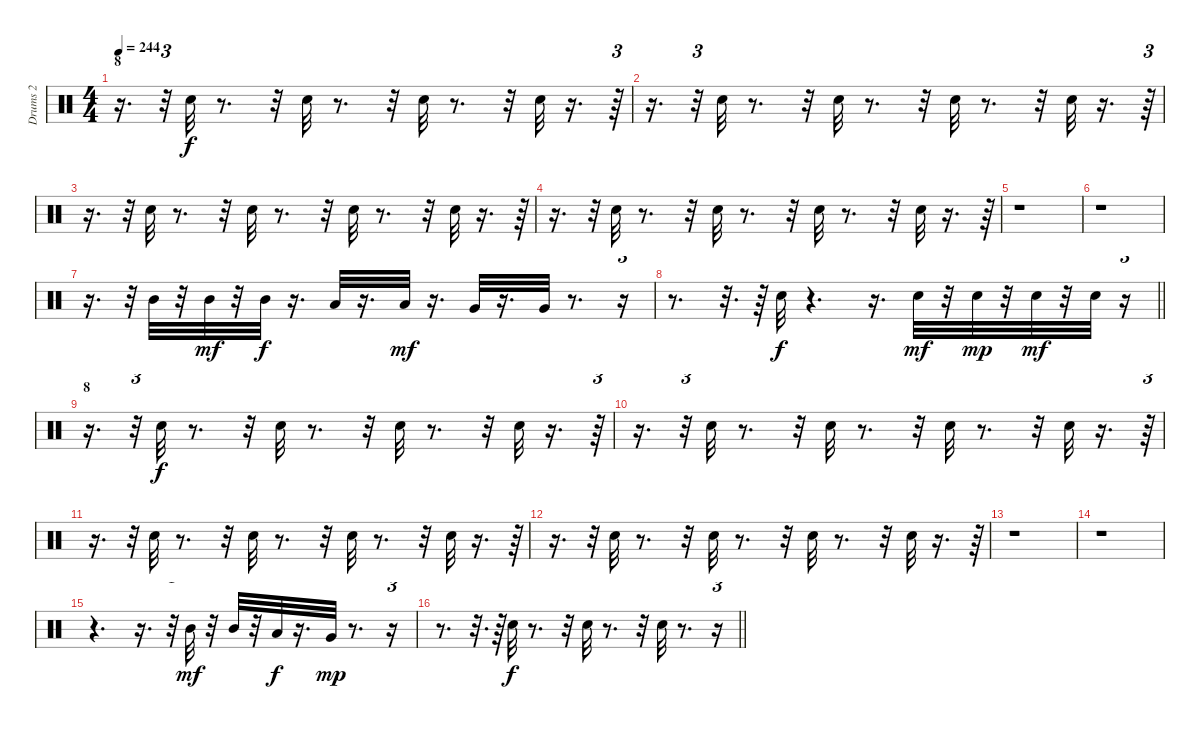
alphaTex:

\track ("Drums 2" "Drums 2") {instrument percussion}
\staff {score}
\articulation defaults
\ts (4 4)
\section ("" "8")
\tempo 244
\clef neutral
\ks c
r.16{d dy mf} r.32{tu (3 2)} "Electric Snare (hit)".32{dy f} r.8{d} r.32 "Electric Snare (hit)".32 r.8{d} r.32 "Electric Snare (hit)".32 r.8{d} r.32 "Electric Snare (hit)".32 r.16{d} r.64{tu (3 2)} |
r.16{d} r.32{tu (3 2)} "Electric Snare (hit)".32 r.8{d} r.32 "Electric Snare (hit)".32 r.8{d} r.32 "Electric Snare (hit)".32 r.8{d} r.32 "Electric Snare (hit)".32 r.16{d} r.64{tu (3 2)} |
r.16{d} r.32{tu (3 2)} "Electric Snare (hit)".32 r.8{d} r.32 "Electric Snare (hit)".32 r.8{d} r.32 "Electric Snare (hit)".32 r.8{d} r.32 "Electric Snare (hit)".32 r.16{d} r.64{tu (3 2)} |
r.16{d} r.32{tu (3 2)} "Electric Snare (hit)".32 r.8{d} r.32 "Electric Snare (hit)".32 r.8{d} r.32 "Electric Snare (hit)".32 r.8{d} r.32 "Electric Snare (hit)".32 r.16{d} r.64{tu (3 2)} |
r.1 |
r.1 |
r.16{d} r.32{tu (3 2)} "Mid Tom (hit)".32 r.32 "Mid Tom (hit)".32{dy mf} r.32 "Mid Tom (hit)".32{dy f} r.16{d} "Low Tom (hit)".32 r.16{d} "Low Tom (hit)".32{dy mf} r.16{d} "Very Low Tom (hit)".32 r.16{d} "Very Low Tom (hit)".32 r.8{d} r.16{tu (3 2)} |
\barLineRight lightlight
r.8{d} r.32{d} r.64 "Electric Snare (hit)".32{dy f} r.4{d} r.16{d} "Electric Snare (hit)".32{dy mf} r.32 "Electric Snare (hit)".32{dy mp} r.32 "Electric Snare (hit)".32{dy mf} r.32 "Electric Snare (hit)".32 r.16{tu (3 2)} |
\section ("" "8")
r.16{d} r.32{tu (3 2)} "Electric Snare (hit)".32{dy f} r.8{d} r.32 "Electric Snare (hit)".32 r.8{d} r.32 "Electric Snare (hit)".32 r.8{d} r.32 "Electric Snare (hit)".32 r.16{d} r.64{tu (3 2)} |
r.16{d} r.32{tu (3 2)} "Electric Snare (hit)".32 r.8{d} r.32 "Electric Snare (hit)".32 r.8{d} r.32 "Electric Snare (hit)".32 r.8{d} r.32 "Electric Snare (hit)".32 r.16{d} r.64{tu (3 2)} |
r.16{d} r.32{tu (3 2)} "Electric Snare (hit)".32 r.8{d} r.32 "Electric Snare (hit)".32 r.8{d} r.32 "Electric Snare (hit)".32 r.8{d} r.32 "Electric Snare (hit)".32 r.16{d} r.64{tu (3 2)} |
r.16{d} r.32{tu (3 2)} "Electric Snare (hit)".32 r.8{d} r.32 "Electric Snare (hit)".32 r.8{d} r.32 "Electric Snare (hit)".32 r.8{d} r.32 "Electric Snare (hit)".32 r.16{d} r.64{tu (3 2)} |
r.1 |
r.1 |
r.4{d} r.16{d} r.32{tu (3 2)} "Mid Tom (hit)".32{dy mf} r.32 "Mid Tom (hit)".32 r.32 "Low Tom (hit)".32{dy f} r.16{d} "Very Low Tom (hit)".32{dy mp} r.8{d} r.16{tu (3 2)} |
\barLineRight lightlight
r.8{d} r.32{d} r.64 "Electric Snare (hit)".32{dy f} r.8{d} r.32 "Electric Snare (hit)".32 r.8{d} r.32 "Electric Snare (hit)".32 r.8{d} r.16{tu (3 2)}
